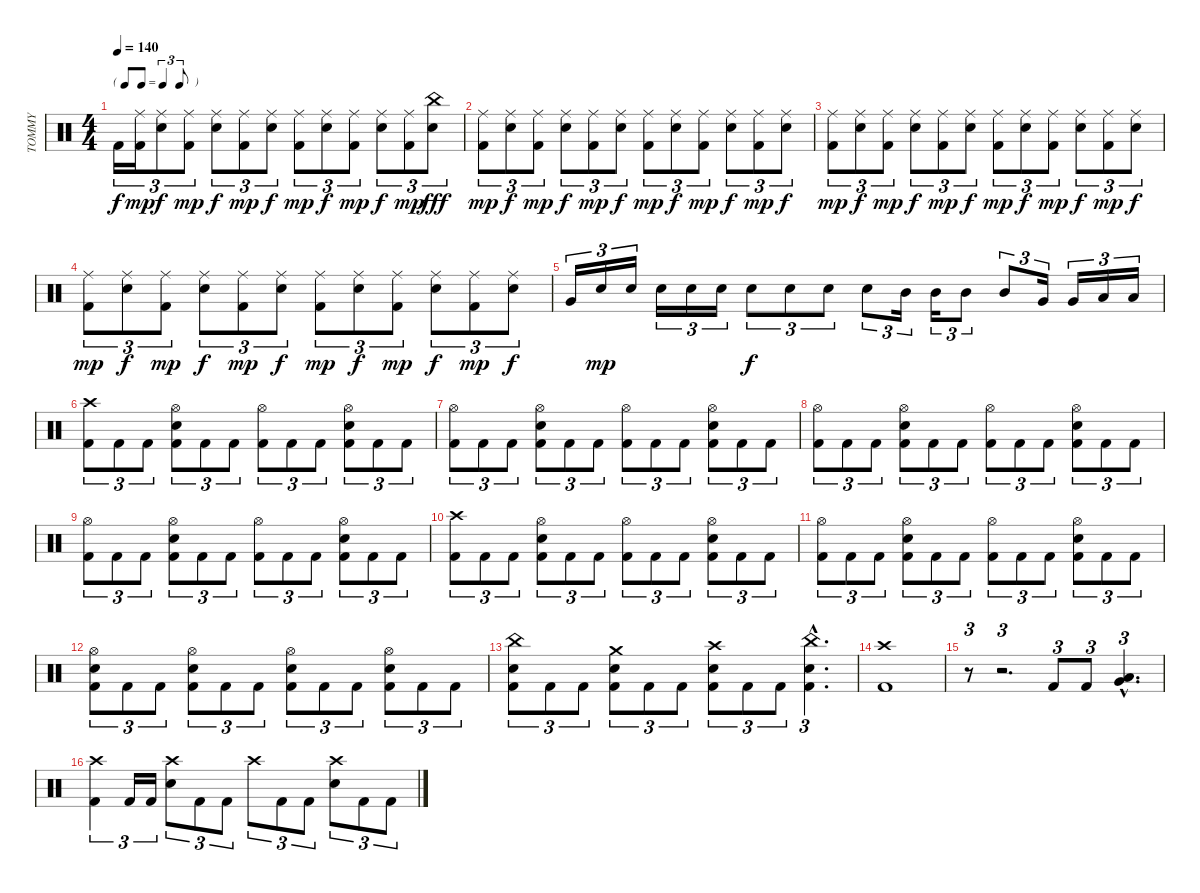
\track ("TOMMY" "TOMMY") {instrument percussion}
\staff {score}
\articulation defaults
\ts (4 4)
\tf triplet8th
\tempo 140
\clef neutral
\ks c "Kick (hit) 2".16{tu (3 2) dy f}
("Kick (hit) 2" "Ride (middle)").16{tu (3 2) dy mp} ("Snare (hit) 2" "Ride (middle)").8{tu (3 2) dy f} ("Kick (hit) 2" "Ride (middle)").8{tu (3 2) dy mp} ("Snare (hit) 2" "Ride (middle)").8{tu (3 2) dy f} ("Kick (hit) 2" "Ride (middle)").8{tu (3 2) dy mp} ("Snare (hit) 2" "Ride (middle)").8{tu (3 2) dy f} ("Kick (hit) 2" "Ride (middle)").8{tu (3 2) dy mp} ("Snare (hit) 2" "Ride (middle)").8{tu (3 2) dy f} ("Kick (hit) 2" "Ride (middle)").8{tu (3 2) dy mp} ("Snare (hit) 2" "Ride (middle)").8{tu (3 2) dy f} ("Kick (hit) 2" "Ride (middle)").8{tu (3 2) dy mp} ("Snare (hit) 2" "China (hit)").8{tu (3 2) dy fff} |
("Kick (hit) 2" "Ride (middle)").8{tu (3 2) dy mp} ("Snare (hit) 2" "Ride (middle)").8{tu (3 2) dy f} ("Kick (hit) 2" "Ride (middle)").8{tu (3 2) dy mp} ("Snare (hit) 2" "Ride (middle)").8{tu (3 2) dy f} ("Kick (hit) 2" "Ride (middle)").8{tu (3 2) dy mp} ("Snare (hit) 2" "Ride (middle)").8{tu (3 2) dy f} ("Kick (hit) 2" "Ride (middle)").8{tu (3 2) dy mp} ("Snare (hit) 2" "Ride (middle)").8{tu (3 2) dy f} ("Kick (hit) 2" "Ride (middle)").8{tu (3 2) dy mp} ("Snare (hit) 2" "Ride (middle)").8{tu (3 2) dy f} ("Kick (hit) 2" "Ride (middle)").8{tu (3 2) dy mp} ("Snare (hit) 2" "Ride (middle)").8{tu (3 2) dy f} |
("Kick (hit) 2" "Ride (middle)").8{tu (3 2) dy mp} ("Snare (hit) 2" "Ride (middle)").8{tu (3 2) dy f} ("Kick (hit) 2" "Ride (middle)").8{tu (3 2) dy mp} ("Snare (hit) 2" "Ride (middle)").8{tu (3 2) dy f} ("Kick (hit) 2" "Ride (middle)").8{tu (3 2) dy mp} ("Snare (hit) 2" "Ride (middle)").8{tu (3 2) dy f} ("Kick (hit) 2" "Ride (middle)").8{tu (3 2) dy mp} ("Snare (hit) 2" "Ride (middle)").8{tu (3 2) dy f} ("Kick (hit) 2" "Ride (middle)").8{tu (3 2) dy mp} ("Snare (hit) 2" "Ride (middle)").8{tu (3 2) dy f} ("Kick (hit) 2" "Ride (middle)").8{tu (3 2) dy mp} ("Snare (hit) 2" "Ride (middle)").8{tu (3 2) dy f} |
("Kick (hit) 2" "Ride (middle)").8{tu (3 2) dy mp} ("Snare (hit) 2" "Ride (middle)").8{tu (3 2) dy f} ("Kick (hit) 2" "Ride (middle)").8{tu (3 2) dy mp} ("Snare (hit) 2" "Ride (middle)").8{tu (3 2) dy f} ("Kick (hit) 2" "Ride (middle)").8{tu (3 2) dy mp} ("Snare (hit) 2" "Ride (middle)").8{tu (3 2) dy f} ("Kick (hit) 2" "Ride (middle)").8{tu (3 2) dy mp} ("Snare (hit) 2" "Ride (middle)").8{tu (3 2) dy f} ("Kick (hit) 2" "Ride (middle)").8{tu (3 2) dy mp} ("Snare (hit) 2" "Ride (middle)").8{tu (3 2) dy f} ("Kick (hit) 2" "Ride (middle)").8{tu (3 2) dy mp} ("Snare (hit) 2" "Ride (middle)").8{tu (3 2) dy f} |
"Very Low Tom (hit)".16{tu (3 2)} "Snare (hit) 2".16{tu (3 2) dy mp} "Snare (hit) 2".16{tu (3 2)} "Snare (hit) 2".16{tu (3 2)} "Snare (hit) 2".16{tu (3 2)} "Snare (hit) 2".16{tu (3 2)} "Snare (hit) 2".8{tu (3 2) dy f} "Snare (hit) 2".8{tu (3 2)} "Snare (hit) 2".8{tu (3 2)} "Snare (hit) 2".8{tu (3 2)} "Mid Tom (hit)".16{tu (3 2)} "Mid Tom (hit)".16{tu (3 2)} "Mid Tom (hit)".8{tu (3 2)} "Mid Tom (hit)".8{tu (3 2)} "Very Low Tom (hit)".16{tu (3 2)} "Very Low Tom (hit)".16{tu (3 2)} "Low Floor Tom (hit)".16{tu (3 2)} "Low Floor Tom (hit)".16{tu (3 2)} |
("Kick (hit) 2" "Crash high (hit)").8{tu (3 2)} "Kick (hit) 2".8{tu (3 2)} "Kick (hit) 2".8{tu (3 2)} ("Snare (hit) 2" "Kick (hit) 2" "Hi-Hat (open)").8{tu (3 2)} "Kick (hit) 2".8{tu (3 2)} "Kick (hit) 2".8{tu (3 2)} ("Kick (hit) 2" "Hi-Hat (open)").8{tu (3 2)} "Kick (hit) 2".8{tu (3 2)} "Kick (hit) 2".8{tu (3 2)} ("Snare (hit) 2" "Kick (hit) 2" "Hi-Hat (open)").8{tu (3 2)} "Kick (hit) 2".8{tu (3 2)} "Kick (hit) 2".8{tu (3 2)} |
("Kick (hit) 2" "Hi-Hat (open)").8{tu (3 2)} "Kick (hit) 2".8{tu (3 2)} "Kick (hit) 2".8{tu (3 2)} ("Snare (hit) 2" "Kick (hit) 2" "Hi-Hat (open)").8{tu (3 2)} "Kick (hit) 2".8{tu (3 2)} "Kick (hit) 2".8{tu (3 2)} ("Kick (hit) 2" "Hi-Hat (open)").8{tu (3 2)} "Kick (hit) 2".8{tu (3 2)} "Kick (hit) 2".8{tu (3 2)} ("Snare (hit) 2" "Kick (hit) 2" "Hi-Hat (open)").8{tu (3 2)} "Kick (hit) 2".8{tu (3 2)} "Kick (hit) 2".8{tu (3 2)} |
("Kick (hit) 2" "Hi-Hat (open)").8{tu (3 2)} "Kick (hit) 2".8{tu (3 2)} "Kick (hit) 2".8{tu (3 2)} ("Snare (hit) 2" "Kick (hit) 2" "Hi-Hat (open)").8{tu (3 2)} "Kick (hit) 2".8{tu (3 2)} "Kick (hit) 2".8{tu (3 2)} ("Kick (hit) 2" "Hi-Hat (open)").8{tu (3 2)} "Kick (hit) 2".8{tu (3 2)} "Kick (hit) 2".8{tu (3 2)} ("Snare (hit) 2" "Kick (hit) 2" "Hi-Hat (open)").8{tu (3 2)} "Kick (hit) 2".8{tu (3 2)} "Kick (hit) 2".8{tu (3 2)} |
("Kick (hit) 2" "Hi-Hat (open)").8{tu (3 2)} "Kick (hit) 2".8{tu (3 2)} "Kick (hit) 2".8{tu (3 2)} ("Snare (hit) 2" "Kick (hit) 2" "Hi-Hat (open)").8{tu (3 2)} "Kick (hit) 2".8{tu (3 2)} "Kick (hit) 2".8{tu (3 2)} ("Kick (hit) 2" "Hi-Hat (open)").8{tu (3 2)} "Kick (hit) 2".8{tu (3 2)} "Kick (hit) 2".8{tu (3 2)} ("Snare (hit) 2" "Kick (hit) 2" "Hi-Hat (open)").8{tu (3 2)} "Kick (hit) 2".8{tu (3 2)} "Kick (hit) 2".8{tu (3 2)} |
("Kick (hit) 2" "Crash high (hit)").8{tu (3 2)} "Kick (hit) 2".8{tu (3 2)} "Kick (hit) 2".8{tu (3 2)} ("Snare (hit) 2" "Kick (hit) 2" "Hi-Hat (open)").8{tu (3 2)} "Kick (hit) 2".8{tu (3 2)} "Kick (hit) 2".8{tu (3 2)} ("Kick (hit) 2" "Hi-Hat (open)").8{tu (3 2)} "Kick (hit) 2".8{tu (3 2)} "Kick (hit) 2".8{tu (3 2)} ("Snare (hit) 2" "Kick (hit) 2" "Hi-Hat (open)").8{tu (3 2)} "Kick (hit) 2".8{tu (3 2)} "Kick (hit) 2".8{tu (3 2)} |
("Kick (hit) 2" "Hi-Hat (open)").8{tu (3 2)} "Kick (hit) 2".8{tu (3 2)} "Kick (hit) 2".8{tu (3 2)} ("Snare (hit) 2" "Kick (hit) 2" "Hi-Hat (open)").8{tu (3 2)} "Kick (hit) 2".8{tu (3 2)} "Kick (hit) 2".8{tu (3 2)} ("Kick (hit) 2" "Hi-Hat (open)").8{tu (3 2)} "Kick (hit) 2".8{tu (3 2)} "Kick (hit) 2".8{tu (3 2)} ("Snare (hit) 2" "Kick (hit) 2" "Hi-Hat (open)").8{tu (3 2)} "Kick (hit) 2".8{tu (3 2)} "Kick (hit) 2".8{tu (3 2)} |
("Snare (hit) 2" "Kick (hit) 2" "Hi-Hat (open)").8{tu (3 2)} "Kick (hit) 2".8{tu (3 2)} "Kick (hit) 2".8{tu (3 2)} ("Snare (hit) 2" "Kick (hit) 2" "Hi-Hat (open)").8{tu (3 2)} "Kick (hit) 2".8{tu (3 2)} "Kick (hit) 2".8{tu (3 2)} ("Snare (hit) 2" "Kick (hit) 2" "Hi-Hat (open)").8{tu (3 2)} "Kick (hit) 2".8{tu (3 2)} "Kick (hit) 2".8{tu (3 2)} ("Snare (hit) 2" "Kick (hit) 2" "Hi-Hat (open)").8{tu (3 2)} "Kick (hit) 2".8{tu (3 2)} "Kick (hit) 2".8{tu (3 2)} |
("Snare (hit) 2" "Kick (hit) 2" "China (hit)").8{tu (3 2)} "Kick (hit) 2".8{tu (3 2)} "Kick (hit) 2".8{tu (3 2)} ("Snare (hit) 2" "Kick (hit) 2" "Crash medium (hit)").8{tu (3 2)} "Kick (hit) 2".8{tu (3 2)} "Kick (hit) 2".8{tu (3 2)} ("Snare (hit) 2" "Kick (hit) 2" "Crash high (hit)").8{tu (3 2)} "Kick (hit) 2".8{tu (3 2)} "Kick (hit) 2".8{tu (3 2)} ("Snare (hit) 2"{hac} "Kick (hit) 2"{hac} "China (hit)"{hac}).4{d tu (3 2)} |
("Kick (hit) 2" "Crash high (hit)").1 |
r.8{tu (3 2)} r.2{d tu (3 2)} "Kick (hit) 2".8{tu (3 2)} "Kick (hit) 2".8{tu (3 2)} ("Very Low Tom (hit)"{hac} "Low Floor Tom (hit)"{hac}).4{d tu (3 2)} |
("Kick (hit) 2" "Crash high (hit)").4{tu (3 2)} "Kick (hit) 2".16{tu (3 2)} "Kick (hit) 2".16{tu (3 2)} ("Snare (hit) 2" "Crash high (hit)").8{tu (3 2)} "Kick (hit) 2".8{tu (3 2)} "Kick (hit) 2".8{tu (3 2)} "Crash high (hit)".8{tu (3 2)} "Kick (hit) 2".8{tu (3 2)} "Kick (hit) 2".8{tu (3 2)} ("Snare (hit) 2" "Crash high (hit)").8{tu (3 2)} "Kick (hit) 2".8{tu (3 2)} "Kick (hit) 2".8{tu (3 2)}
